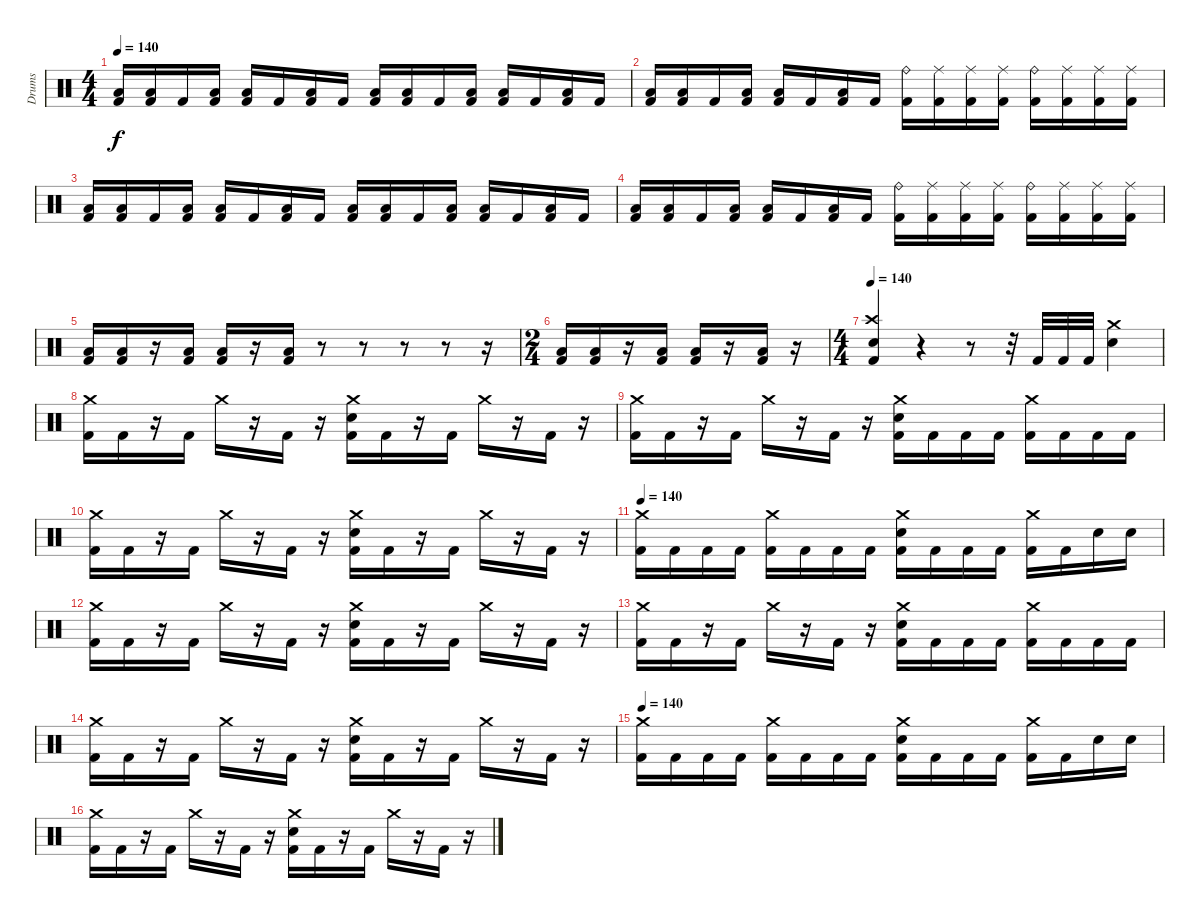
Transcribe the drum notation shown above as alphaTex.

\track ("Drums" "Drums") {instrument percussion}
\staff {score}
\articulation defaults
\ts (4 4)
\tempo 140
\clef neutral
\ks c
("Low Floor Tom (hit)" "Kick (hit) 2").16{dy f} ("Low Floor Tom (hit)" "Kick (hit) 2").16 "Kick (hit) 2".16 ("Low Floor Tom (hit)" "Kick (hit) 2").16 ("Low Floor Tom (hit)" "Kick (hit) 2").16 "Kick (hit) 2".16 ("Low Floor Tom (hit)" "Kick (hit) 2").16 "Kick (hit) 2".16 ("Low Floor Tom (hit)" "Kick (hit) 2").16 ("Low Floor Tom (hit)" "Kick (hit) 2").16 "Kick (hit) 2".16 ("Low Floor Tom (hit)" "Kick (hit) 2").16 ("Low Floor Tom (hit)" "Kick (hit) 2").16 "Kick (hit) 2".16 ("Low Floor Tom (hit)" "Kick (hit) 2").16 "Kick (hit) 2".16 |
("Low Floor Tom (hit)" "Kick (hit) 2").16 ("Low Floor Tom (hit)" "Kick (hit) 2").16 "Kick (hit) 2".16 ("Low Floor Tom (hit)" "Kick (hit) 2").16 ("Low Floor Tom (hit)" "Kick (hit) 2").16 "Kick (hit) 2".16 ("Low Floor Tom (hit)" "Kick (hit) 2").16 "Kick (hit) 2".16 ("Ride (bell)" "Kick (hit) 2").16 ("Ride (middle)" "Kick (hit) 2").16 ("Ride (middle)" "Kick (hit) 2").16 ("Ride (middle)" "Kick (hit) 2").16 ("Ride (bell)" "Kick (hit) 2").16 ("Ride (middle)" "Kick (hit) 2").16 ("Ride (middle)" "Kick (hit) 2").16 ("Ride (middle)" "Kick (hit) 2").16 |
("Low Floor Tom (hit)" "Kick (hit) 2").16 ("Low Floor Tom (hit)" "Kick (hit) 2").16 "Kick (hit) 2".16 ("Low Floor Tom (hit)" "Kick (hit) 2").16 ("Low Floor Tom (hit)" "Kick (hit) 2").16 "Kick (hit) 2".16 ("Low Floor Tom (hit)" "Kick (hit) 2").16 "Kick (hit) 2".16 ("Low Floor Tom (hit)" "Kick (hit) 2").16 ("Low Floor Tom (hit)" "Kick (hit) 2").16 "Kick (hit) 2".16 ("Low Floor Tom (hit)" "Kick (hit) 2").16 ("Low Floor Tom (hit)" "Kick (hit) 2").16 "Kick (hit) 2".16 ("Low Floor Tom (hit)" "Kick (hit) 2").16 "Kick (hit) 2".16 |
("Low Floor Tom (hit)" "Kick (hit) 2").16 ("Low Floor Tom (hit)" "Kick (hit) 2").16 "Kick (hit) 2".16 ("Low Floor Tom (hit)" "Kick (hit) 2").16 ("Low Floor Tom (hit)" "Kick (hit) 2").16 "Kick (hit) 2".16 ("Low Floor Tom (hit)" "Kick (hit) 2").16 "Kick (hit) 2".16 ("Ride (bell)" "Kick (hit) 2").16 ("Ride (middle)" "Kick (hit) 2").16 ("Ride (middle)" "Kick (hit) 2").16 ("Ride (middle)" "Kick (hit) 2").16 ("Ride (bell)" "Kick (hit) 2").16 ("Ride (middle)" "Kick (hit) 2").16 ("Ride (middle)" "Kick (hit) 2").16 ("Ride (middle)" "Kick (hit) 2").16 |
("Low Floor Tom (hit)" "Kick (hit) 2").16 ("Low Floor Tom (hit)" "Kick (hit) 2").16 r.16 ("Low Floor Tom (hit)" "Kick (hit) 2").16 ("Low Floor Tom (hit)" "Kick (hit) 2").16 r.16 ("Low Floor Tom (hit)" "Kick (hit) 2").16 r.8 r.8 r.8 r.8 r.16 |
\ts (2 4)
("Low Floor Tom (hit)" "Kick (hit) 2").16 ("Low Floor Tom (hit)" "Kick (hit) 2").16 r.16 ("Low Floor Tom (hit)" "Kick (hit) 2").16 ("Low Floor Tom (hit)" "Kick (hit) 2").16 r.16 ("Low Floor Tom (hit)" "Kick (hit) 2").16 r.16 |
\ts (4 4)
\tempo 140
("Crash high (hit)" "Electric Snare (hit)" "Kick (hit) 2").4 r.4 r.8 r.32 "Kick (hit) 2".32 "Kick (hit) 2".32 "Kick (hit) 2".32 ("Crash medium (hit)" "Electric Snare (hit)").4 |
("Crash medium (hit)" "Kick (hit) 2").16 "Kick (hit) 2".16 r.16 "Kick (hit) 2".16 "Crash medium (hit)".16 r.16 "Kick (hit) 2".16 r.16 ("Crash medium (hit)" "Electric Snare (hit)" "Kick (hit) 2").16 "Kick (hit) 2".16 r.16 "Kick (hit) 2".16 "Crash medium (hit)".16 r.16 "Kick (hit) 2".16 r.16 |
("Crash medium (hit)" "Kick (hit) 2").16 "Kick (hit) 2".16 r.16 "Kick (hit) 2".16 "Crash medium (hit)".16 r.16 "Kick (hit) 2".16 r.16 ("Crash medium (hit)" "Electric Snare (hit)" "Kick (hit) 2").16 "Kick (hit) 2".16 "Kick (hit) 2".16 "Kick (hit) 2".16 ("Crash medium (hit)" "Kick (hit) 2").16 "Kick (hit) 2".16 "Kick (hit) 2".16 "Kick (hit) 2".16 |
("Crash medium (hit)" "Kick (hit) 2").16 "Kick (hit) 2".16 r.16 "Kick (hit) 2".16 "Crash medium (hit)".16 r.16 "Kick (hit) 2".16 r.16 ("Crash medium (hit)" "Electric Snare (hit)" "Kick (hit) 2").16 "Kick (hit) 2".16 r.16 "Kick (hit) 2".16 "Crash medium (hit)".16 r.16 "Kick (hit) 2".16 r.16 |
\tempo 140
("Crash medium (hit)" "Kick (hit) 2").16 "Kick (hit) 2".16 "Kick (hit) 2".16 "Kick (hit) 2".16 ("Crash medium (hit)" "Kick (hit) 2").16 "Kick (hit) 2".16 "Kick (hit) 2".16 "Kick (hit) 2".16 ("Crash medium (hit)" "Electric Snare (hit)" "Kick (hit) 2").16 "Kick (hit) 2".16 "Kick (hit) 2".16 "Kick (hit) 2".16 ("Crash medium (hit)" "Kick (hit) 2").16 "Kick (hit) 2".16 "Electric Snare (hit)".16 "Electric Snare (hit)".16 |
("Crash medium (hit)" "Kick (hit) 2").16 "Kick (hit) 2".16 r.16 "Kick (hit) 2".16 "Crash medium (hit)".16 r.16 "Kick (hit) 2".16 r.16 ("Crash medium (hit)" "Electric Snare (hit)" "Kick (hit) 2").16 "Kick (hit) 2".16 r.16 "Kick (hit) 2".16 "Crash medium (hit)".16 r.16 "Kick (hit) 2".16 r.16 |
("Crash medium (hit)" "Kick (hit) 2").16 "Kick (hit) 2".16 r.16 "Kick (hit) 2".16 "Crash medium (hit)".16 r.16 "Kick (hit) 2".16 r.16 ("Crash medium (hit)" "Electric Snare (hit)" "Kick (hit) 2").16 "Kick (hit) 2".16 "Kick (hit) 2".16 "Kick (hit) 2".16 ("Crash medium (hit)" "Kick (hit) 2").16 "Kick (hit) 2".16 "Kick (hit) 2".16 "Kick (hit) 2".16 |
("Crash medium (hit)" "Kick (hit) 2").16 "Kick (hit) 2".16 r.16 "Kick (hit) 2".16 "Crash medium (hit)".16 r.16 "Kick (hit) 2".16 r.16 ("Crash medium (hit)" "Electric Snare (hit)" "Kick (hit) 2").16 "Kick (hit) 2".16 r.16 "Kick (hit) 2".16 "Crash medium (hit)".16 r.16 "Kick (hit) 2".16 r.16 |
\tempo 140
("Crash medium (hit)" "Kick (hit) 2").16 "Kick (hit) 2".16 "Kick (hit) 2".16 "Kick (hit) 2".16 ("Crash medium (hit)" "Kick (hit) 2").16 "Kick (hit) 2".16 "Kick (hit) 2".16 "Kick (hit) 2".16 ("Crash medium (hit)" "Electric Snare (hit)" "Kick (hit) 2").16 "Kick (hit) 2".16 "Kick (hit) 2".16 "Kick (hit) 2".16 ("Crash medium (hit)" "Kick (hit) 2").16 "Kick (hit) 2".16 "Electric Snare (hit)".16 "Electric Snare (hit)".16 |
("Crash medium (hit)" "Kick (hit) 2").16 "Kick (hit) 2".16 r.16 "Kick (hit) 2".16 "Crash medium (hit)".16 r.16 "Kick (hit) 2".16 r.16 ("Crash medium (hit)" "Electric Snare (hit)" "Kick (hit) 2").16 "Kick (hit) 2".16 r.16 "Kick (hit) 2".16 "Crash medium (hit)".16 r.16 "Kick (hit) 2".16 r.16
